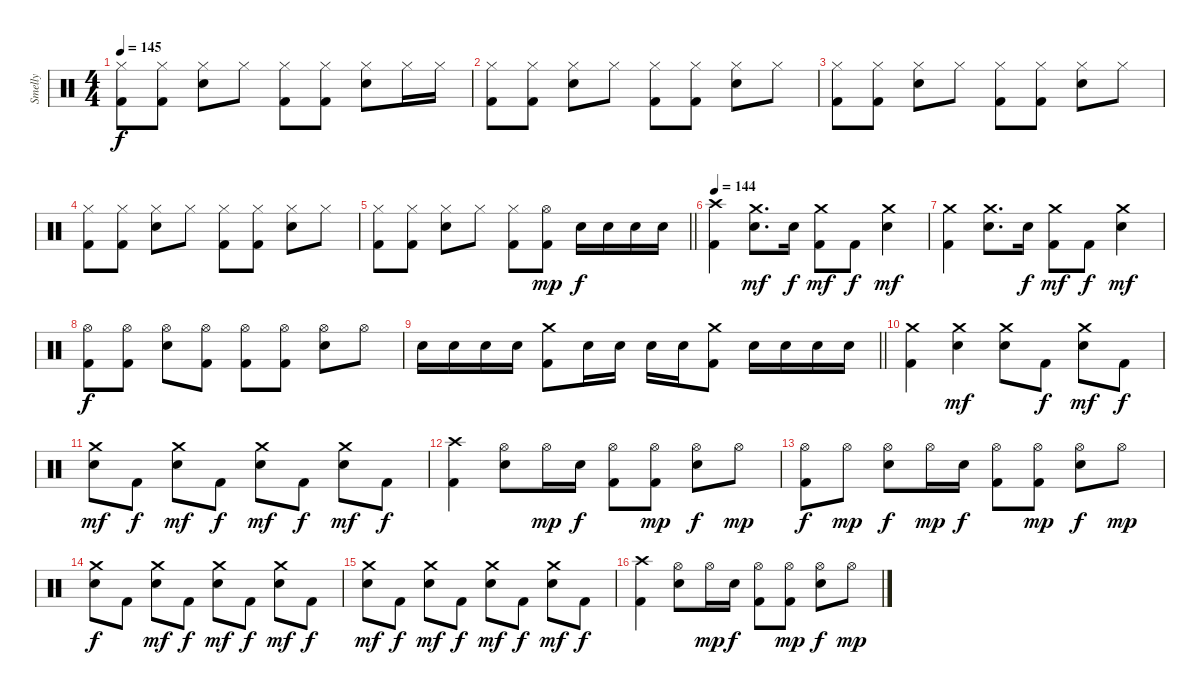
\track ("Smelly" "Smelly") {instrument percussion}
\staff {score}
\articulation defaults
\ts (4 4)
\tempo 145
\clef neutral
\ks c
("Hi-Hat (closed)" "Kick (hit) 2").8{dy f} ("Hi-Hat (closed)" "Kick (hit) 2").8 ("Hi-Hat (closed)" "Electric Snare (hit)").8 "Hi-Hat (closed)".8 ("Hi-Hat (closed)" "Kick (hit) 2").8 ("Hi-Hat (closed)" "Kick (hit) 2").8 ("Hi-Hat (closed)" "Electric Snare (hit)").8 "Hi-Hat (closed)".16 "Hi-Hat (closed)".16 |
("Hi-Hat (closed)" "Kick (hit) 2").8 ("Hi-Hat (closed)" "Kick (hit) 2").8 ("Hi-Hat (closed)" "Electric Snare (hit)").8 "Hi-Hat (closed)".8 ("Hi-Hat (closed)" "Kick (hit) 2").8 ("Hi-Hat (closed)" "Kick (hit) 2").8 ("Hi-Hat (closed)" "Electric Snare (hit)").8 "Hi-Hat (closed)".8 |
("Hi-Hat (closed)" "Kick (hit) 2").8 ("Hi-Hat (closed)" "Kick (hit) 2").8 ("Hi-Hat (closed)" "Electric Snare (hit)").8 "Hi-Hat (closed)".8 ("Hi-Hat (closed)" "Kick (hit) 2").8 ("Hi-Hat (closed)" "Kick (hit) 2").8 ("Hi-Hat (closed)" "Electric Snare (hit)").8 "Hi-Hat (closed)".8 |
("Hi-Hat (closed)" "Kick (hit) 2").8 ("Hi-Hat (closed)" "Kick (hit) 2").8 ("Hi-Hat (closed)" "Electric Snare (hit)").8 "Hi-Hat (closed)".8 ("Hi-Hat (closed)" "Kick (hit) 2").8 ("Hi-Hat (closed)" "Kick (hit) 2").8 ("Hi-Hat (closed)" "Electric Snare (hit)").8 "Hi-Hat (closed)".8 |
\barLineRight lightlight
("Hi-Hat (closed)" "Kick (hit) 2").8 ("Hi-Hat (closed)" "Kick (hit) 2").8 ("Hi-Hat (closed)" "Electric Snare (hit)").8 "Hi-Hat (closed)".8 ("Hi-Hat (closed)" "Kick (hit) 2").8 ("Hi-Hat (open)" "Kick (hit) 2").8{dy mp} "Electric Snare (hit)".16{dy f} "Electric Snare (hit)".16 "Electric Snare (hit)".16 "Electric Snare (hit)".16 |
\section ("" "")
\tempo 144
("Crash high (hit)" "Kick (hit) 2").4 ("Crash medium (hit)" "Electric Snare (hit)").8{d dy mf} "Electric Snare (hit)".16{dy f} ("Crash medium (hit)" "Kick (hit) 2").8{dy mf} "Kick (hit) 2".8{dy f} ("Crash medium (hit)" "Electric Snare (hit)").4{dy mf} |
("Crash medium (hit)" "Kick (hit) 2").4 ("Crash medium (hit)" "Electric Snare (hit)").8{d} "Electric Snare (hit)".16{dy f} ("Crash medium (hit)" "Kick (hit) 2").8{dy mf} "Kick (hit) 2".8{dy f} ("Crash medium (hit)" "Electric Snare (hit)").4{dy mf} |
("Hi-Hat (open)" "Kick (hit) 2").8{dy f} ("Hi-Hat (open)" "Kick (hit) 2").8 ("Hi-Hat (open)" "Electric Snare (hit)").8 ("Hi-Hat (open)" "Kick (hit) 2").8 ("Hi-Hat (open)" "Kick (hit) 2").8 ("Hi-Hat (open)" "Kick (hit) 2").8 ("Hi-Hat (open)" "Electric Snare (hit)").8 "Hi-Hat (open)".8 |
\barLineRight lightlight "Electric Snare (hit)".16 "Electric Snare (hit)".16 "Electric Snare (hit)".16 "Electric Snare (hit)".16
("Crash medium (hit)" "Kick (hit) 2").8 "Electric Snare (hit)".16 "Electric Snare (hit)".16 "Electric Snare (hit)".16 "Electric Snare (hit)".16 ("Crash medium (hit)" "Kick (hit) 2").8 "Electric Snare (hit)".16 "Electric Snare (hit)".16 "Electric Snare (hit)".16 "Electric Snare (hit)".16 |
\section ("" "")
("Crash medium (hit)" "Kick (hit) 2").4 ("Crash medium (hit)" "Electric Snare (hit)").4{dy mf} ("Crash medium (hit)" "Electric Snare (hit)").8 "Kick (hit) 2".8{dy f} ("Crash medium (hit)" "Electric Snare (hit)").8{dy mf} "Kick (hit) 2".8{dy f} |
("Crash medium (hit)" "Electric Snare (hit)").8{dy mf} "Kick (hit) 2".8{dy f} ("Crash medium (hit)" "Electric Snare (hit)").8{dy mf} "Kick (hit) 2".8{dy f} ("Crash medium (hit)" "Electric Snare (hit)").8{dy mf} "Kick (hit) 2".8{dy f} ("Crash medium (hit)" "Electric Snare (hit)").8{dy mf} "Kick (hit) 2".8{dy f} |
("Crash high (hit)" "Kick (hit) 2").4 ("Hi-Hat (open)" "Electric Snare (hit)").8 "Hi-Hat (open)".16{dy mp} "Electric Snare (hit)".16{dy f} ("Hi-Hat (open)" "Kick (hit) 2").8 ("Hi-Hat (open)" "Kick (hit) 2").8{dy mp} ("Hi-Hat (open)" "Electric Snare (hit)").8{dy f} "Hi-Hat (open)".8{dy mp} |
("Hi-Hat (open)" "Kick (hit) 2").8{dy f} "Hi-Hat (open)".8{dy mp} ("Hi-Hat (open)" "Electric Snare (hit)").8{dy f} "Hi-Hat (open)".16{dy mp} "Electric Snare (hit)".16{dy f} ("Hi-Hat (open)" "Kick (hit) 2").8 ("Hi-Hat (open)" "Kick (hit) 2").8{dy mp} ("Hi-Hat (open)" "Electric Snare (hit)").8{dy f} "Hi-Hat (open)".8{dy mp} |
("Crash medium (hit)" "Electric Snare (hit)").8{dy f} "Kick (hit) 2".8 ("Crash medium (hit)" "Electric Snare (hit)").8{dy mf} "Kick (hit) 2".8{dy f} ("Crash medium (hit)" "Electric Snare (hit)").8{dy mf} "Kick (hit) 2".8{dy f} ("Crash medium (hit)" "Electric Snare (hit)").8{dy mf} "Kick (hit) 2".8{dy f} |
("Crash medium (hit)" "Electric Snare (hit)").8{dy mf} "Kick (hit) 2".8{dy f} ("Crash medium (hit)" "Electric Snare (hit)").8{dy mf} "Kick (hit) 2".8{dy f} ("Crash medium (hit)" "Electric Snare (hit)").8{dy mf} "Kick (hit) 2".8{dy f} ("Crash medium (hit)" "Electric Snare (hit)").8{dy mf} "Kick (hit) 2".8{dy f} |
("Crash high (hit)" "Kick (hit) 2").4 ("Hi-Hat (open)" "Electric Snare (hit)").8 "Hi-Hat (open)".16{dy mp} "Electric Snare (hit)".16{dy f} ("Hi-Hat (open)" "Kick (hit) 2").8 ("Hi-Hat (open)" "Kick (hit) 2").8{dy mp} ("Hi-Hat (open)" "Electric Snare (hit)").8{dy f} "Hi-Hat (open)".8{dy mp}
